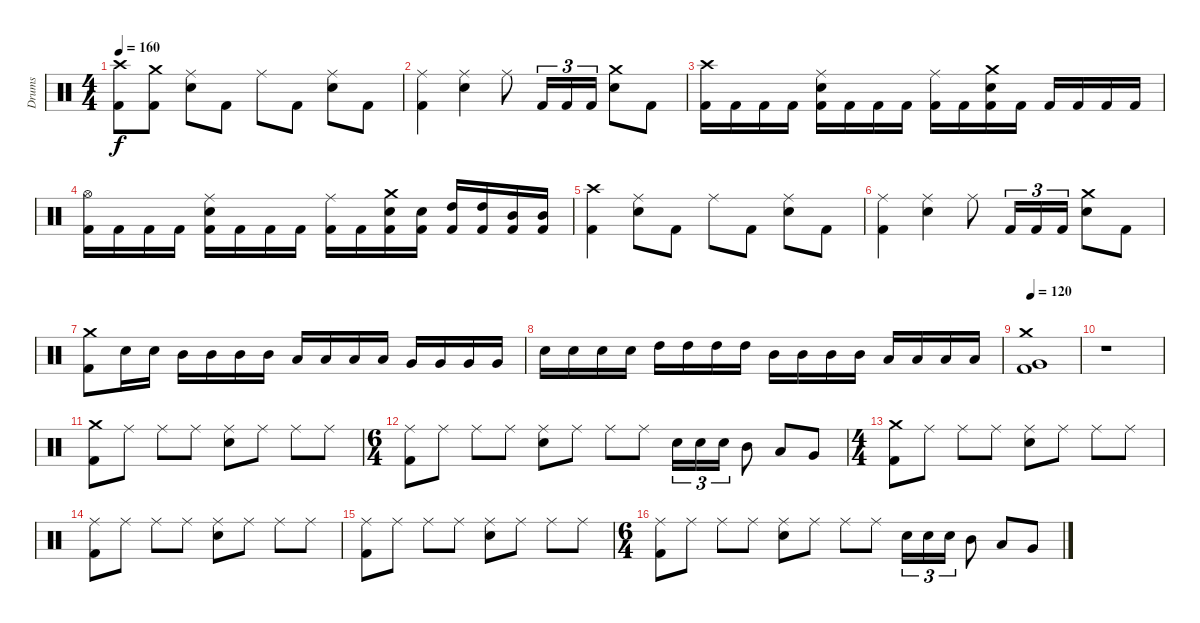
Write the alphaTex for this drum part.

\track ("Drums" "Drums") {instrument percussion}
\staff {score}
\articulation defaults
\ts (4 4)
\tempo 160
\clef neutral
\ks c
("Kick (hit) 2" "Crash high (hit)").8{dy f} ("Kick (hit) 2" "Crash medium (hit)").8 ("Electric Snare (hit)" "Ride (middle)").8 "Kick (hit) 2".8 "Ride (middle)".8 "Kick (hit) 2".8 ("Electric Snare (hit)" "Ride (middle)").8 "Kick (hit) 2".8 |
("Kick (hit) 2" "Ride (middle)").4 ("Electric Snare (hit)" "Ride (middle)").4 "Ride (middle)".8 "Kick (hit) 2".16{tu (3 2)} "Kick (hit) 2".16{tu (3 2)} "Kick (hit) 2".16{tu (3 2)} ("Electric Snare (hit)" "Crash medium (hit)").8 "Kick (hit) 2".8 |
("Kick (hit) 2" "Crash high (hit)").16 "Kick (hit) 2".16 "Kick (hit) 2".16 "Kick (hit) 2".16 ("Kick (hit) 2" "Electric Snare (hit)" "Ride (middle)").16 "Kick (hit) 2".16 "Kick (hit) 2".16 "Kick (hit) 2".16 ("Kick (hit) 2" "Ride (middle)").16 "Kick (hit) 2".16 ("Kick (hit) 2" "Electric Snare (hit)" "Crash medium (hit)").16 "Kick (hit) 2".16 "Kick (hit) 2".16 "Kick (hit) 2".16 "Kick (hit) 2".16 "Kick (hit) 2".16 |
("Kick (hit) 2" "Hi-Hat (open)").16 "Kick (hit) 2".16 "Kick (hit) 2".16 "Kick (hit) 2".16 ("Kick (hit) 2" "Electric Snare (hit)" "Ride (middle)").16 "Kick (hit) 2".16 "Kick (hit) 2".16 "Kick (hit) 2".16 ("Kick (hit) 2" "Ride (middle)").16 "Kick (hit) 2".16 ("Kick (hit) 2" "Electric Snare (hit)" "Crash medium (hit)").16 ("Kick (hit) 2" "Electric Snare (hit)").16 ("Kick (hit) 2" "High Tom (hit)").16 ("Kick (hit) 2" "High Tom (hit)").16 ("Kick (hit) 2" "Mid Tom (hit)").16 ("Kick (hit) 2" "Mid Tom (hit)").16 |
("Kick (hit) 2" "Crash high (hit)").4 ("Electric Snare (hit)" "Ride (middle)").8 "Kick (hit) 2".8 "Ride (middle)".8 "Kick (hit) 2".8 ("Electric Snare (hit)" "Ride (middle)").8 "Kick (hit) 2".8 |
("Kick (hit) 2" "Ride (middle)").4 ("Electric Snare (hit)" "Ride (middle)").4 "Ride (middle)".8 "Kick (hit) 2".16{tu (3 2)} "Kick (hit) 2".16{tu (3 2)} "Kick (hit) 2".16{tu (3 2)} ("Electric Snare (hit)" "Crash medium (hit)").8 "Kick (hit) 2".8 |
("Kick (hit) 2" "Crash medium (hit)").8 "Electric Snare (hit)".16 "Electric Snare (hit)".16 "Mid Tom (hit)".16 "Mid Tom (hit)".16 "Mid Tom (hit)".16 "Mid Tom (hit)".16 "Low Tom (hit)".16 "Low Tom (hit)".16 "Low Tom (hit)".16 "Low Tom (hit)".16 "Very Low Tom (hit)".16 "Very Low Tom (hit)".16 "Very Low Tom (hit)".16 "Very Low Tom (hit)".16 |
"Electric Snare (hit)".16 "Electric Snare (hit)".16 "Electric Snare (hit)".16 "Electric Snare (hit)".16 "High Tom (hit)".16 "High Tom (hit)".16 "High Tom (hit)".16 "High Tom (hit)".16 "Mid Tom (hit)".16 "Mid Tom (hit)".16 "Mid Tom (hit)".16 "Mid Tom (hit)".16 "Low Tom (hit)".16 "Low Tom (hit)".16 "Low Tom (hit)".16 "Low Tom (hit)".16 |
\tempo 120
("Kick (hit) 2" "Very Low Tom (hit)" "Crash medium (hit)").1 |
r.1 |
("Kick (hit) 2" "Crash medium (hit)").8 "Ride (middle)".8 "Ride (middle)".8 "Ride (middle)".8 ("Electric Snare (hit)" "Ride (middle)").8 "Ride (middle)".8 "Ride (middle)".8 "Ride (middle)".8 |
\ts (6 4)
("Kick (hit) 2" "Ride (middle)").8 "Ride (middle)".8 "Ride (middle)".8 "Ride (middle)".8 ("Electric Snare (hit)" "Ride (middle)").8 "Ride (middle)".8 "Ride (middle)".8 "Ride (middle)".8 "Electric Snare (hit)".16{tu (3 2)} "Electric Snare (hit)".16{tu (3 2)} "Electric Snare (hit)".16{tu (3 2)} "Mid Tom (hit)".8 "Low Tom (hit)".8 "Very Low Tom (hit)".8 |
\ts (4 4)
("Kick (hit) 2" "Crash medium (hit)").8 "Ride (middle)".8 "Ride (middle)".8 "Ride (middle)".8 ("Electric Snare (hit)" "Ride (middle)").8 "Ride (middle)".8 "Ride (middle)".8 "Ride (middle)".8 |
("Kick (hit) 2" "Ride (middle)").8 "Ride (middle)".8 "Ride (middle)".8 "Ride (middle)".8 ("Electric Snare (hit)" "Ride (middle)").8 "Ride (middle)".8 "Ride (middle)".8 "Ride (middle)".8 |
("Kick (hit) 2" "Ride (middle)").8 "Ride (middle)".8 "Ride (middle)".8 "Ride (middle)".8 ("Electric Snare (hit)" "Ride (middle)").8 "Ride (middle)".8 "Ride (middle)".8 "Ride (middle)".8 |
\ts (6 4)
("Kick (hit) 2" "Ride (middle)").8 "Ride (middle)".8 "Ride (middle)".8 "Ride (middle)".8 ("Electric Snare (hit)" "Ride (middle)").8 "Ride (middle)".8 "Ride (middle)".8 "Ride (middle)".8 "Electric Snare (hit)".16{tu (3 2)} "Electric Snare (hit)".16{tu (3 2)} "Electric Snare (hit)".16{tu (3 2)} "Mid Tom (hit)".8 "Low Tom (hit)".8 "Very Low Tom (hit)".8
